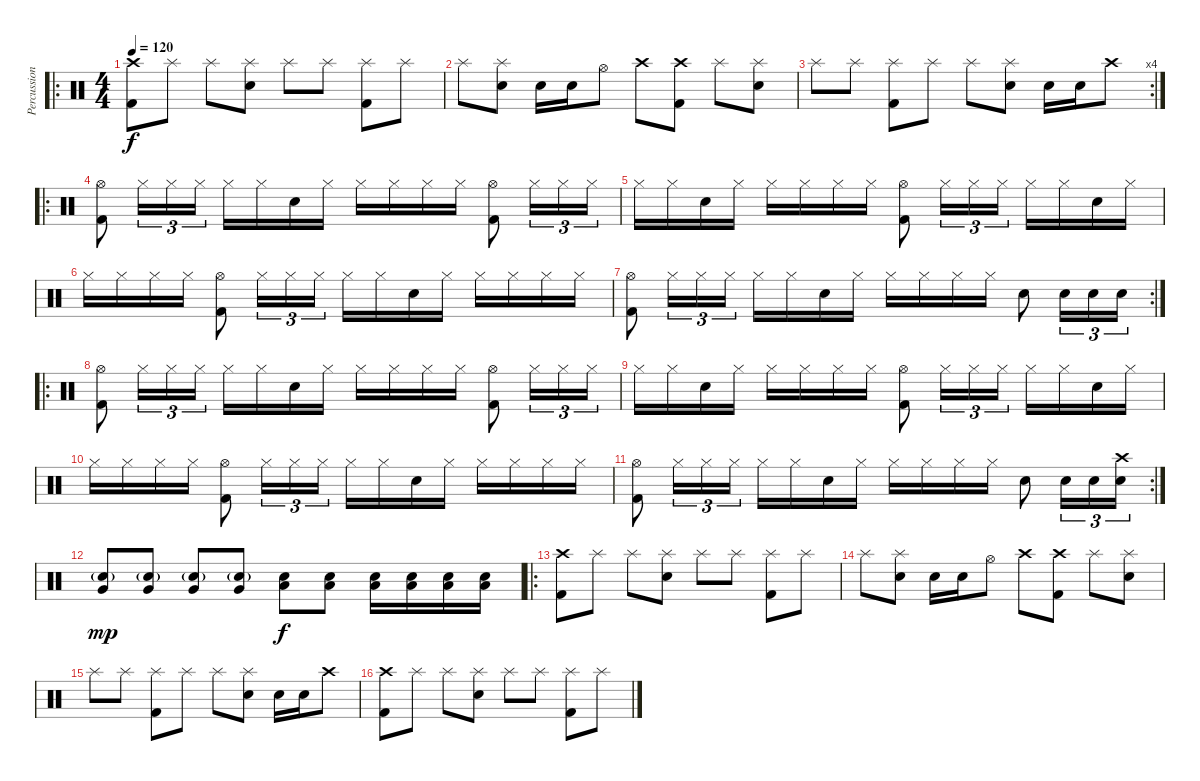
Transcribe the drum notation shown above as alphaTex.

\track ("Percussion" "Percussion") {instrument percussion}
\staff {score}
\articulation defaults
\ro
\ts (4 4)
\tempo 120
\clef neutral
\ks c
("Crash high (hit)" "Kick (hit) 2").8{dy f} "Splash (hit)".8 "Splash (hit)".8 ("Splash (hit)" "Snare (hit) 2").8 "Splash (hit)".8 "Splash (hit)".8 ("Splash (hit)" "Kick (hit) 2").8 "Splash (hit)".8 |
"Splash (hit)".8 ("Splash (hit)" "Snare (hit) 2").8 "Snare (hit) 2".16 "Snare (hit) 2".16 "Hi-Hat (open)".8 "Crash high (hit)".8 ("Crash high (hit)" "Kick (hit) 2").8 "Splash (hit)".8 ("Splash (hit)" "Snare (hit) 2").8 |
\rc 4 "Splash (hit)".8 "Splash (hit)".8
("Splash (hit)" "Kick (hit) 2").8 "Splash (hit)".8 "Splash (hit)".8 ("Splash (hit)" "Snare (hit) 2").8 "Snare (hit) 2".16 "Snare (hit) 2".16 "Crash high (hit)".8 |
\ro
("Hi-Hat (open)" "Kick (hit) 2").8 "Hi-Hat (closed)".16{tu (3 2)} "Hi-Hat (closed)".16{tu (3 2)} "Hi-Hat (closed)".16{tu (3 2)} "Hi-Hat (closed)".16 "Hi-Hat (closed)".16 "Snare (hit) 2".16 "Hi-Hat (closed)".16 "Hi-Hat (closed)".16 "Hi-Hat (closed)".16 "Hi-Hat (closed)".16 "Hi-Hat (closed)".16 ("Hi-Hat (open)" "Kick (hit) 2").8 "Hi-Hat (closed)".16{tu (3 2)} "Hi-Hat (closed)".16{tu (3 2)} "Hi-Hat (closed)".16{tu (3 2)} |
"Hi-Hat (closed)".16 "Hi-Hat (closed)".16 "Snare (hit) 2".16 "Hi-Hat (closed)".16 "Hi-Hat (closed)".16 "Hi-Hat (closed)".16 "Hi-Hat (closed)".16 "Hi-Hat (closed)".16 ("Hi-Hat (open)" "Kick (hit) 2").8 "Hi-Hat (closed)".16{tu (3 2)} "Hi-Hat (closed)".16{tu (3 2)} "Hi-Hat (closed)".16{tu (3 2)} "Hi-Hat (closed)".16 "Hi-Hat (closed)".16 "Snare (hit) 2".16 "Hi-Hat (closed)".16 |
"Hi-Hat (closed)".16 "Hi-Hat (closed)".16 "Hi-Hat (closed)".16 "Hi-Hat (closed)".16 ("Hi-Hat (open)" "Kick (hit) 2").8 "Hi-Hat (closed)".16{tu (3 2)} "Hi-Hat (closed)".16{tu (3 2)} "Hi-Hat (closed)".16{tu (3 2)} "Hi-Hat (closed)".16 "Hi-Hat (closed)".16 "Snare (hit) 2".16 "Hi-Hat (closed)".16 "Hi-Hat (closed)".16 "Hi-Hat (closed)".16 "Hi-Hat (closed)".16 "Hi-Hat (closed)".16 |
\rc 2
("Hi-Hat (open)" "Kick (hit) 2").8 "Hi-Hat (closed)".16{tu (3 2)} "Hi-Hat (closed)".16{tu (3 2)} "Hi-Hat (closed)".16{tu (3 2)} "Hi-Hat (closed)".16 "Hi-Hat (closed)".16 "Snare (hit) 2".16 "Hi-Hat (closed)".16 "Hi-Hat (closed)".16 "Hi-Hat (closed)".16 "Hi-Hat (closed)".16 "Hi-Hat (closed)".16 "Snare (hit) 2".8 "Snare (hit) 2".16{tu (3 2)} "Snare (hit) 2".16{tu (3 2)} "Snare (hit) 2".16{tu (3 2)} |
\ro
("Hi-Hat (open)" "Kick (hit) 2").8 "Hi-Hat (closed)".16{tu (3 2)} "Hi-Hat (closed)".16{tu (3 2)} "Hi-Hat (closed)".16{tu (3 2)} "Hi-Hat (closed)".16 "Hi-Hat (closed)".16 "Snare (hit) 2".16 "Hi-Hat (closed)".16 "Hi-Hat (closed)".16 "Hi-Hat (closed)".16 "Hi-Hat (closed)".16 "Hi-Hat (closed)".16 ("Hi-Hat (open)" "Kick (hit) 2").8 "Hi-Hat (closed)".16{tu (3 2)} "Hi-Hat (closed)".16{tu (3 2)} "Hi-Hat (closed)".16{tu (3 2)} |
"Hi-Hat (closed)".16 "Hi-Hat (closed)".16 "Snare (hit) 2".16 "Hi-Hat (closed)".16 "Hi-Hat (closed)".16 "Hi-Hat (closed)".16 "Hi-Hat (closed)".16 "Hi-Hat (closed)".16 ("Hi-Hat (open)" "Kick (hit) 2").8 "Hi-Hat (closed)".16{tu (3 2)} "Hi-Hat (closed)".16{tu (3 2)} "Hi-Hat (closed)".16{tu (3 2)} "Hi-Hat (closed)".16 "Hi-Hat (closed)".16 "Snare (hit) 2".16 "Hi-Hat (closed)".16 |
"Hi-Hat (closed)".16 "Hi-Hat (closed)".16 "Hi-Hat (closed)".16 "Hi-Hat (closed)".16 ("Hi-Hat (open)" "Kick (hit) 2").8 "Hi-Hat (closed)".16{tu (3 2)} "Hi-Hat (closed)".16{tu (3 2)} "Hi-Hat (closed)".16{tu (3 2)} "Hi-Hat (closed)".16 "Hi-Hat (closed)".16 "Snare (hit) 2".16 "Hi-Hat (closed)".16 "Hi-Hat (closed)".16 "Hi-Hat (closed)".16 "Hi-Hat (closed)".16 "Hi-Hat (closed)".16 |
\rc 2
("Hi-Hat (open)" "Kick (hit) 2").8 "Hi-Hat (closed)".16{tu (3 2)} "Hi-Hat (closed)".16{tu (3 2)} "Hi-Hat (closed)".16{tu (3 2)} "Hi-Hat (closed)".16 "Hi-Hat (closed)".16 "Snare (hit) 2".16 "Hi-Hat (closed)".16 "Hi-Hat (closed)".16 "Hi-Hat (closed)".16 "Hi-Hat (closed)".16 "Hi-Hat (closed)".16 "Snare (hit) 2".8 "Snare (hit) 2".16{tu (3 2)} "Snare (hit) 2".16{tu (3 2)} ("Snare (hit) 2" "Crash high (hit)").16{tu (3 2)} |
("Snare (hit) 2"{g} "Very Low Tom (hit)").8{dy mp} ("Snare (hit) 2"{g} "Very Low Tom (hit)").8 ("Snare (hit) 2"{g} "Very Low Tom (hit)").8 ("Snare (hit) 2"{g} "Very Low Tom (hit)").8 ("Snare (hit) 2" "Low Tom (hit)").8{dy f} ("Snare (hit) 2" "Low Tom (hit)").8 ("Snare (hit) 2" "Low Tom (hit)").16 ("Snare (hit) 2" "Low Tom (hit)").16 ("Snare (hit) 2" "Low Tom (hit)").16 ("Snare (hit) 2" "Low Tom (hit)").16 |
\ro
("Crash high (hit)" "Kick (hit) 2").8 "Splash (hit)".8 "Splash (hit)".8 ("Splash (hit)" "Snare (hit) 2").8 "Splash (hit)".8 "Splash (hit)".8 ("Splash (hit)" "Kick (hit) 2").8 "Splash (hit)".8 |
"Splash (hit)".8 ("Splash (hit)" "Snare (hit) 2").8 "Snare (hit) 2".16 "Snare (hit) 2".16 "Hi-Hat (open)".8 "Crash high (hit)".8 ("Crash high (hit)" "Kick (hit) 2").8 "Splash (hit)".8 ("Splash (hit)" "Snare (hit) 2").8 |
"Splash (hit)".8 "Splash (hit)".8 ("Splash (hit)" "Kick (hit) 2").8 "Splash (hit)".8 "Splash (hit)".8 ("Splash (hit)" "Snare (hit) 2").8 "Snare (hit) 2".16 "Snare (hit) 2".16 "Crash high (hit)".8 |
("Crash high (hit)" "Kick (hit) 2").8 "Splash (hit)".8 "Splash (hit)".8 ("Splash (hit)" "Snare (hit) 2").8 "Splash (hit)".8 "Splash (hit)".8 ("Splash (hit)" "Kick (hit) 2").8 "Splash (hit)".8
